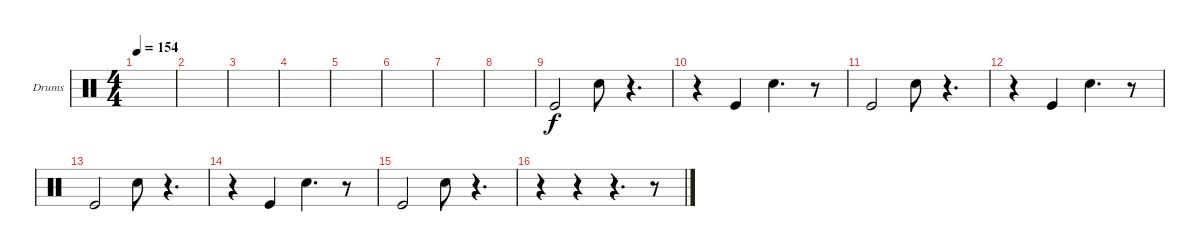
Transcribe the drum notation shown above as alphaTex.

\defaultSystemsLayout 4
\bracketExtendMode groupsimilarinstruments
\firstSystemTrackNameOrientation horizontal
\otherSystemsTrackNameOrientation horizontal
\track ("Drumkit" "Drums") {instrument percussion}
\staff {score}
\articulation defaults
\ts (4 4)
\tempo 154
\clef neutral
\ks c
|
|
|
|
|
|
|
|
"Kick (hit)".2 "Snare (hit) 2".8 r.4{d} |
r.4 "Kick (hit)".4 "Snare (hit) 2".4{d} r.8 |
"Kick (hit)".2 "Snare (hit) 2".8 r.4{d} |
r.4 "Kick (hit)".4 "Snare (hit) 2".4{d} r.8 |
"Kick (hit)".2 "Snare (hit) 2".8 r.4{d} |
r.4 "Kick (hit)".4 "Snare (hit) 2".4{d} r.8 |
"Kick (hit)".2 "Snare (hit) 2".8 r.4{d} |
r.4 r.4 r.4{d} r.8
